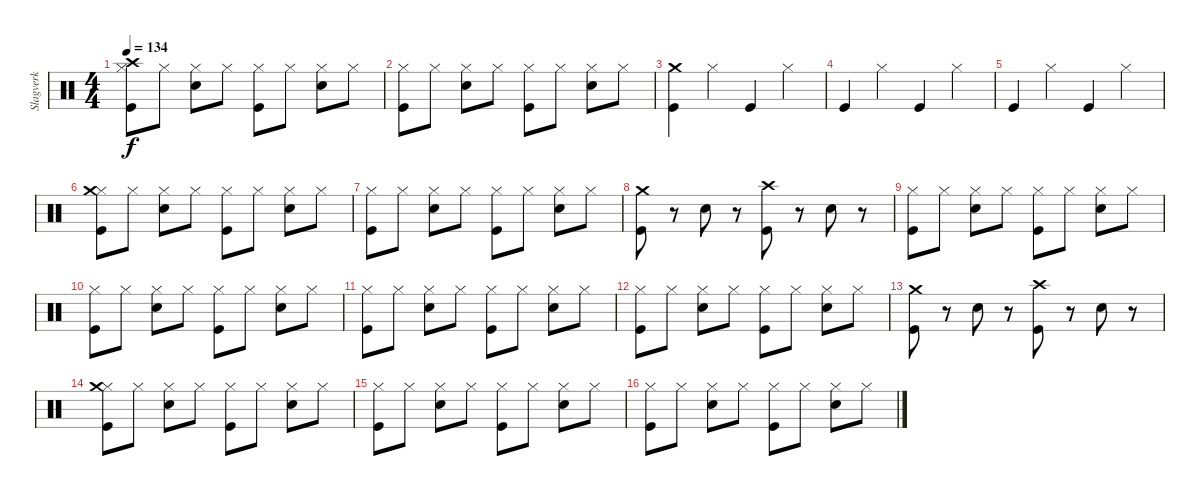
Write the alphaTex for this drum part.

\track ("Slagverk" "Slagverk") {instrument percussion}
\staff
\articulation defaults
\ts (4 4)
\tempo 134
\clef neutral
\ks c
("Hi-Hat (closed)" "Crash high (hit)" "Kick (hit)").8{dy f} "Hi-Hat (closed)".8 ("Hi-Hat (closed)" "Electric Snare (hit)").8 "Hi-Hat (closed)".8 ("Hi-Hat (closed)" "Kick (hit)").8 "Hi-Hat (closed)".8 ("Hi-Hat (closed)" "Electric Snare (hit)").8 "Hi-Hat (closed)".8 |
("Hi-Hat (closed)" "Kick (hit)").8 "Hi-Hat (closed)".8 ("Hi-Hat (closed)" "Electric Snare (hit)").8 "Hi-Hat (closed)".8 ("Hi-Hat (closed)" "Kick (hit)").8 "Hi-Hat (closed)".8 ("Hi-Hat (closed)" "Electric Snare (hit)").8 "Hi-Hat (closed)".8 |
("Crash medium (hit)" "Kick (hit)").4 "Hi-Hat (closed)".4 "Kick (hit)".4 "Hi-Hat (closed)".4 |
"Kick (hit)".4 "Hi-Hat (closed)".4 "Kick (hit)".4 "Hi-Hat (closed)".4 |
"Kick (hit)".4 "Hi-Hat (closed)".4 "Kick (hit)".4 "Hi-Hat (closed)".4 |
("Hi-Hat (closed)" "Crash medium (hit)" "Kick (hit)").8 "Hi-Hat (closed)".8 ("Hi-Hat (closed)" "Electric Snare (hit)").8 "Hi-Hat (closed)".8 ("Hi-Hat (closed)" "Kick (hit)").8 "Hi-Hat (closed)".8 ("Hi-Hat (closed)" "Electric Snare (hit)").8 "Hi-Hat (closed)".8 |
("Hi-Hat (closed)" "Kick (hit)").8 "Hi-Hat (closed)".8 ("Hi-Hat (closed)" "Electric Snare (hit)").8 "Hi-Hat (closed)".8 ("Hi-Hat (closed)" "Kick (hit)").8 "Hi-Hat (closed)".8 ("Hi-Hat (closed)" "Electric Snare (hit)").8 "Hi-Hat (closed)".8 |
("Crash medium (hit)" "Kick (hit)").8 r.8 "Electric Snare (hit)".8 r.8 ("Crash high (hit)" "Kick (hit)").8 r.8 "Electric Snare (hit)".8 r.8 |
("Hi-Hat (closed)" "Kick (hit)").8 "Hi-Hat (closed)".8 ("Hi-Hat (closed)" "Electric Snare (hit)").8 "Hi-Hat (closed)".8 ("Hi-Hat (closed)" "Kick (hit)").8 "Hi-Hat (closed)".8 ("Hi-Hat (closed)" "Electric Snare (hit)").8 "Hi-Hat (closed)".8 |
("Hi-Hat (closed)" "Kick (hit)").8 "Hi-Hat (closed)".8 ("Hi-Hat (closed)" "Electric Snare (hit)").8 "Hi-Hat (closed)".8 ("Hi-Hat (closed)" "Kick (hit)").8 "Hi-Hat (closed)".8 ("Hi-Hat (closed)" "Electric Snare (hit)").8 "Hi-Hat (closed)".8 |
("Hi-Hat (closed)" "Kick (hit)").8 "Hi-Hat (closed)".8 ("Hi-Hat (closed)" "Electric Snare (hit)").8 "Hi-Hat (closed)".8 ("Hi-Hat (closed)" "Kick (hit)").8 "Hi-Hat (closed)".8 ("Hi-Hat (closed)" "Electric Snare (hit)").8 "Hi-Hat (closed)".8 |
("Hi-Hat (closed)" "Kick (hit)").8 "Hi-Hat (closed)".8 ("Hi-Hat (closed)" "Electric Snare (hit)").8 "Hi-Hat (closed)".8 ("Hi-Hat (closed)" "Kick (hit)").8 "Hi-Hat (closed)".8 ("Hi-Hat (closed)" "Electric Snare (hit)").8 "Hi-Hat (closed)".8 |
("Crash medium (hit)" "Kick (hit)").8 r.8 "Electric Snare (hit)".8 r.8 ("Crash high (hit)" "Kick (hit)").8 r.8 "Electric Snare (hit)".8 r.8 |
("Hi-Hat (closed)" "Crash medium (hit)" "Kick (hit)").8 "Hi-Hat (closed)".8 ("Hi-Hat (closed)" "Electric Snare (hit)").8 "Hi-Hat (closed)".8 ("Hi-Hat (closed)" "Kick (hit)").8 "Hi-Hat (closed)".8 ("Hi-Hat (closed)" "Electric Snare (hit)").8 "Hi-Hat (closed)".8 |
("Hi-Hat (closed)" "Kick (hit)").8 "Hi-Hat (closed)".8 ("Hi-Hat (closed)" "Electric Snare (hit)").8 "Hi-Hat (closed)".8 ("Hi-Hat (closed)" "Kick (hit)").8 "Hi-Hat (closed)".8 ("Hi-Hat (closed)" "Electric Snare (hit)").8 "Hi-Hat (closed)".8 |
("Hi-Hat (closed)" "Kick (hit)").8 "Hi-Hat (closed)".8 ("Hi-Hat (closed)" "Electric Snare (hit)").8 "Hi-Hat (closed)".8 ("Hi-Hat (closed)" "Kick (hit)").8 "Hi-Hat (closed)".8 ("Hi-Hat (closed)" "Electric Snare (hit)").8 "Hi-Hat (closed)".8
